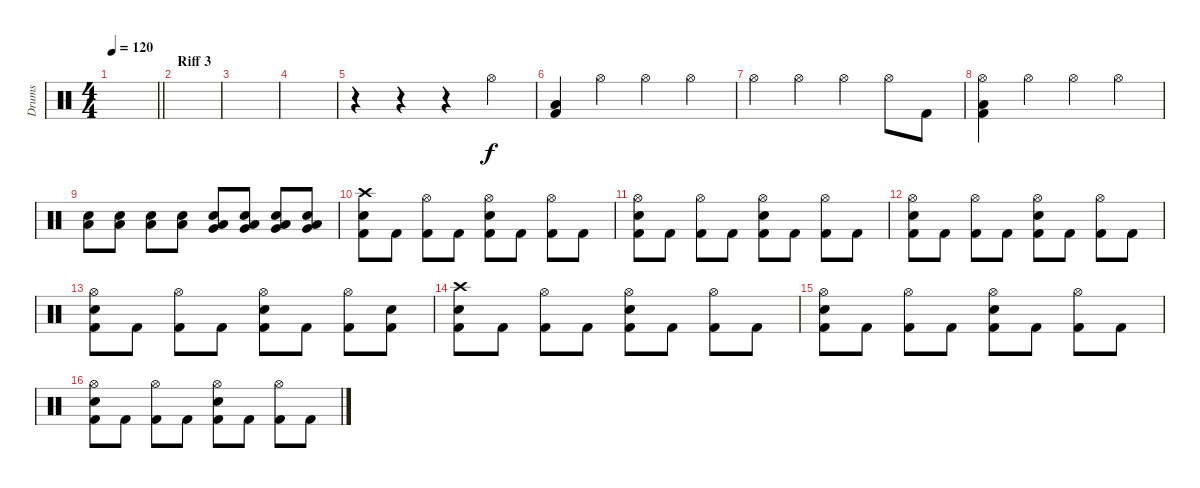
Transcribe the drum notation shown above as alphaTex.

\track ("Drums" "Drums") {instrument percussion}
\staff {score}
\articulation defaults
\ts (4 4)
\tempo 120
\clef neutral
\barLineRight lightlight
\ks c
|
\section ("" "Riff 3")
|
|
|
r.4 r.4 r.4 "Hi-Hat (open)".4 |
("Low Floor Tom (hit)" "Kick (hit) 2").4 "Hi-Hat (open)".4 "Hi-Hat (open)".4 "Hi-Hat (open)".4 |
"Hi-Hat (open)".4 "Hi-Hat (open)".4 "Hi-Hat (open)".4 "Hi-Hat (open)".8 "Kick (hit) 2".8 |
("Hi-Hat (open)" "Low Floor Tom (hit)" "Kick (hit) 2").4 "Hi-Hat (open)".4 "Hi-Hat (open)".4 "Hi-Hat (open)".4 |
("Electric Snare (hit)" "Low Floor Tom (hit)").8{volume 3} ("Electric Snare (hit)" "Low Floor Tom (hit)").8{volume 14} ("Electric Snare (hit)" "Low Floor Tom (hit)").8 ("Electric Snare (hit)" "Low Floor Tom (hit)").8 ("Electric Snare (hit)" "Very Low Tom (hit)" "Low Floor Tom (hit)").8 ("Electric Snare (hit)" "Very Low Tom (hit)" "Low Floor Tom (hit)").8 ("Electric Snare (hit)" "Very Low Tom (hit)" "Low Floor Tom (hit)").8 ("Electric Snare (hit)" "Very Low Tom (hit)" "Low Floor Tom (hit)").8 |
("Crash high (hit)" "Electric Snare (hit)" "Kick (hit) 2").8 "Kick (hit) 2".8 ("Hi-Hat (open)" "Kick (hit) 2").8 "Kick (hit) 2".8 ("Hi-Hat (open)" "Electric Snare (hit)" "Kick (hit) 2").8 "Kick (hit) 2".8 ("Hi-Hat (open)" "Kick (hit) 2").8 "Kick (hit) 2".8 |
("Hi-Hat (open)" "Electric Snare (hit)" "Kick (hit) 2").8 "Kick (hit) 2".8 ("Hi-Hat (open)" "Kick (hit) 2").8 "Kick (hit) 2".8 ("Hi-Hat (open)" "Electric Snare (hit)" "Kick (hit) 2").8 "Kick (hit) 2".8 ("Hi-Hat (open)" "Kick (hit) 2").8 "Kick (hit) 2".8 |
("Hi-Hat (open)" "Electric Snare (hit)" "Kick (hit) 2").8 "Kick (hit) 2".8 ("Hi-Hat (open)" "Kick (hit) 2").8 "Kick (hit) 2".8 ("Hi-Hat (open)" "Electric Snare (hit)" "Kick (hit) 2").8 "Kick (hit) 2".8 ("Hi-Hat (open)" "Kick (hit) 2").8 "Kick (hit) 2".8 |
("Hi-Hat (open)" "Electric Snare (hit)" "Kick (hit) 2").8 "Kick (hit) 2".8 ("Hi-Hat (open)" "Kick (hit) 2").8 "Kick (hit) 2".8 ("Hi-Hat (open)" "Electric Snare (hit)" "Kick (hit) 2").8 "Kick (hit) 2".8 ("Hi-Hat (open)" "Kick (hit) 2").8 ("Electric Snare (hit)" "Kick (hit) 2").8 |
("Crash high (hit)" "Electric Snare (hit)" "Kick (hit) 2").8 "Kick (hit) 2".8 ("Hi-Hat (open)" "Kick (hit) 2").8 "Kick (hit) 2".8 ("Hi-Hat (open)" "Electric Snare (hit)" "Kick (hit) 2").8 "Kick (hit) 2".8 ("Hi-Hat (open)" "Kick (hit) 2").8 "Kick (hit) 2".8 |
("Hi-Hat (open)" "Electric Snare (hit)" "Kick (hit) 2").8 "Kick (hit) 2".8 ("Hi-Hat (open)" "Kick (hit) 2").8 "Kick (hit) 2".8 ("Hi-Hat (open)" "Electric Snare (hit)" "Kick (hit) 2").8 "Kick (hit) 2".8 ("Hi-Hat (open)" "Kick (hit) 2").8 "Kick (hit) 2".8 |
("Hi-Hat (open)" "Electric Snare (hit)" "Kick (hit) 2").8 "Kick (hit) 2".8 ("Hi-Hat (open)" "Kick (hit) 2").8 "Kick (hit) 2".8 ("Hi-Hat (open)" "Electric Snare (hit)" "Kick (hit) 2").8 "Kick (hit) 2".8 ("Hi-Hat (open)" "Kick (hit) 2").8 "Kick (hit) 2".8
